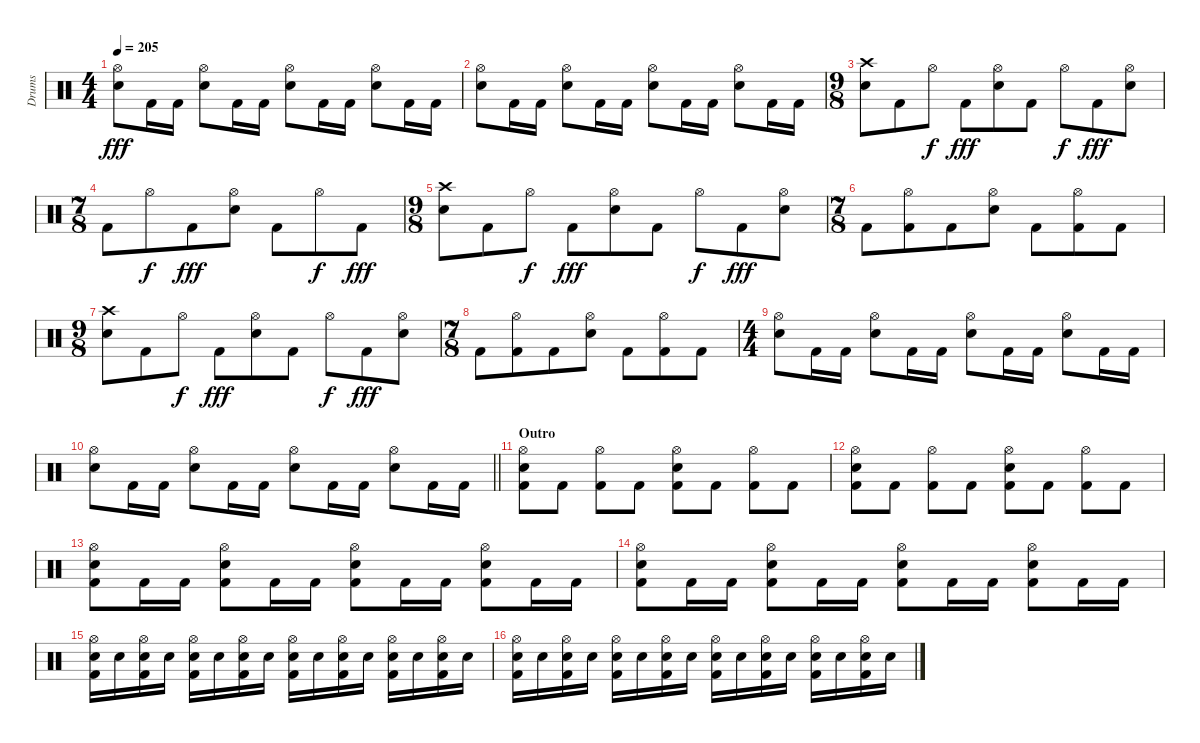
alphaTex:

\track ("Drums" "Drums") {instrument percussion}
\staff {score}
\articulation defaults
\ts (4 4)
\tempo 205
\clef neutral
\ks c
("Hi-Hat (open)" "Snare (hit) 2").8{dy fff} "Kick (hit) 2".16 "Kick (hit) 2".16 ("Hi-Hat (open)" "Snare (hit) 2").8 "Kick (hit) 2".16 "Kick (hit) 2".16 ("Hi-Hat (open)" "Snare (hit) 2").8 "Kick (hit) 2".16 "Kick (hit) 2".16 ("Hi-Hat (open)" "Snare (hit) 2").8 "Kick (hit) 2".16 "Kick (hit) 2".16 |
("Hi-Hat (open)" "Snare (hit) 2").8 "Kick (hit) 2".16 "Kick (hit) 2".16 ("Hi-Hat (open)" "Snare (hit) 2").8 "Kick (hit) 2".16 "Kick (hit) 2".16 ("Hi-Hat (open)" "Snare (hit) 2").8 "Kick (hit) 2".16 "Kick (hit) 2".16 ("Hi-Hat (open)" "Snare (hit) 2").8 "Kick (hit) 2".16 "Kick (hit) 2".16 |
\ts (9 8)
("Crash high (hit)" "Snare (hit) 2").8 "Kick (hit) 2".8 "Hi-Hat (open)".8{dy f} "Kick (hit) 2".8{dy fff} ("Hi-Hat (open)" "Snare (hit) 2").8 "Kick (hit) 2".8 "Hi-Hat (open)".8{dy f} "Kick (hit) 2".8{dy fff} ("Hi-Hat (open)" "Snare (hit) 2").8 |
\ts (7 8)
"Kick (hit) 2".8 "Hi-Hat (open)".8{dy f} "Kick (hit) 2".8{dy fff} ("Hi-Hat (open)" "Snare (hit) 2").8 "Kick (hit) 2".8 "Hi-Hat (open)".8{dy f} "Kick (hit) 2".8{dy fff} |
\ts (9 8)
("Crash high (hit)" "Snare (hit) 2").8 "Kick (hit) 2".8 "Hi-Hat (open)".8{dy f} "Kick (hit) 2".8{dy fff} ("Hi-Hat (open)" "Snare (hit) 2").8 "Kick (hit) 2".8 "Hi-Hat (open)".8{dy f} "Kick (hit) 2".8{dy fff} ("Hi-Hat (open)" "Snare (hit) 2").8 |
\ts (7 8)
"Kick (hit) 2".8 ("Hi-Hat (open)" "Kick (hit) 2").8 "Kick (hit) 2".8 ("Hi-Hat (open)" "Snare (hit) 2").8 "Kick (hit) 2".8 ("Hi-Hat (open)" "Kick (hit) 2").8 "Kick (hit) 2".8 |
\ts (9 8)
("Crash high (hit)" "Snare (hit) 2").8 "Kick (hit) 2".8 "Hi-Hat (open)".8{dy f} "Kick (hit) 2".8{dy fff} ("Hi-Hat (open)" "Snare (hit) 2").8 "Kick (hit) 2".8 "Hi-Hat (open)".8{dy f} "Kick (hit) 2".8{dy fff} ("Hi-Hat (open)" "Snare (hit) 2").8 |
\ts (7 8)
"Kick (hit) 2".8 ("Hi-Hat (open)" "Kick (hit) 2").8 "Kick (hit) 2".8 ("Hi-Hat (open)" "Snare (hit) 2").8 "Kick (hit) 2".8 ("Hi-Hat (open)" "Kick (hit) 2").8 "Kick (hit) 2".8 |
\ts (4 4)
("Hi-Hat (open)" "Snare (hit) 2").8 "Kick (hit) 2".16 "Kick (hit) 2".16 ("Hi-Hat (open)" "Snare (hit) 2").8 "Kick (hit) 2".16 "Kick (hit) 2".16 ("Hi-Hat (open)" "Snare (hit) 2").8 "Kick (hit) 2".16 "Kick (hit) 2".16 ("Hi-Hat (open)" "Snare (hit) 2").8 "Kick (hit) 2".16 "Kick (hit) 2".16 |
\barLineRight lightlight
("Hi-Hat (open)" "Snare (hit) 2").8 "Kick (hit) 2".16 "Kick (hit) 2".16 ("Hi-Hat (open)" "Snare (hit) 2").8 "Kick (hit) 2".16 "Kick (hit) 2".16 ("Hi-Hat (open)" "Snare (hit) 2").8 "Kick (hit) 2".16 "Kick (hit) 2".16 ("Hi-Hat (open)" "Snare (hit) 2").8 "Kick (hit) 2".16 "Kick (hit) 2".16 |
\section ("" "Outro")
("Hi-Hat (open)" "Snare (hit) 2" "Kick (hit) 2").8 "Kick (hit) 2".8 ("Hi-Hat (open)" "Kick (hit) 2").8 "Kick (hit) 2".8 ("Hi-Hat (open)" "Snare (hit) 2" "Kick (hit) 2").8 "Kick (hit) 2".8 ("Hi-Hat (open)" "Kick (hit) 2").8 "Kick (hit) 2".8 |
("Hi-Hat (open)" "Snare (hit) 2" "Kick (hit) 2").8 "Kick (hit) 2".8 ("Hi-Hat (open)" "Kick (hit) 2").8 "Kick (hit) 2".8 ("Hi-Hat (open)" "Snare (hit) 2" "Kick (hit) 2").8 "Kick (hit) 2".8 ("Hi-Hat (open)" "Kick (hit) 2").8 "Kick (hit) 2".8 |
("Hi-Hat (open)" "Snare (hit) 2" "Kick (hit) 2").8 "Kick (hit) 2".16 "Kick (hit) 2".16 ("Hi-Hat (open)" "Snare (hit) 2" "Kick (hit) 2").8 "Kick (hit) 2".16 "Kick (hit) 2".16 ("Hi-Hat (open)" "Snare (hit) 2" "Kick (hit) 2").8 "Kick (hit) 2".16 "Kick (hit) 2".16 ("Hi-Hat (open)" "Snare (hit) 2" "Kick (hit) 2").8 "Kick (hit) 2".16 "Kick (hit) 2".16 |
("Hi-Hat (open)" "Snare (hit) 2" "Kick (hit) 2").8 "Kick (hit) 2".16 "Kick (hit) 2".16 ("Hi-Hat (open)" "Snare (hit) 2" "Kick (hit) 2").8 "Kick (hit) 2".16 "Kick (hit) 2".16 ("Hi-Hat (open)" "Snare (hit) 2" "Kick (hit) 2").8 "Kick (hit) 2".16 "Kick (hit) 2".16 ("Hi-Hat (open)" "Snare (hit) 2" "Kick (hit) 2").8 "Kick (hit) 2".16 "Kick (hit) 2".16 |
("Hi-Hat (open)" "Snare (hit) 2" "Kick (hit) 2").16 "Snare (hit) 2".16 ("Hi-Hat (open)" "Snare (hit) 2" "Kick (hit) 2").16 "Snare (hit) 2".16 ("Hi-Hat (open)" "Snare (hit) 2" "Kick (hit) 2").16 "Snare (hit) 2".16 ("Hi-Hat (open)" "Snare (hit) 2" "Kick (hit) 2").16 "Snare (hit) 2".16 ("Hi-Hat (open)" "Snare (hit) 2" "Kick (hit) 2").16 "Snare (hit) 2".16 ("Hi-Hat (open)" "Snare (hit) 2" "Kick (hit) 2").16 "Snare (hit) 2".16 ("Hi-Hat (open)" "Snare (hit) 2" "Kick (hit) 2").16 "Snare (hit) 2".16 ("Hi-Hat (open)" "Snare (hit) 2" "Kick (hit) 2").16 "Snare (hit) 2".16 |
("Hi-Hat (open)" "Snare (hit) 2" "Kick (hit) 2").16 "Snare (hit) 2".16 ("Hi-Hat (open)" "Snare (hit) 2" "Kick (hit) 2").16 "Snare (hit) 2".16 ("Hi-Hat (open)" "Snare (hit) 2" "Kick (hit) 2").16 "Snare (hit) 2".16 ("Hi-Hat (open)" "Snare (hit) 2" "Kick (hit) 2").16 "Snare (hit) 2".16 ("Hi-Hat (open)" "Snare (hit) 2" "Kick (hit) 2").16 "Snare (hit) 2".16 ("Hi-Hat (open)" "Snare (hit) 2" "Kick (hit) 2").16 "Snare (hit) 2".16 ("Hi-Hat (open)" "Snare (hit) 2" "Kick (hit) 2").16 "Snare (hit) 2".16 ("Hi-Hat (open)" "Snare (hit) 2" "Kick (hit) 2").16 "Snare (hit) 2".16
